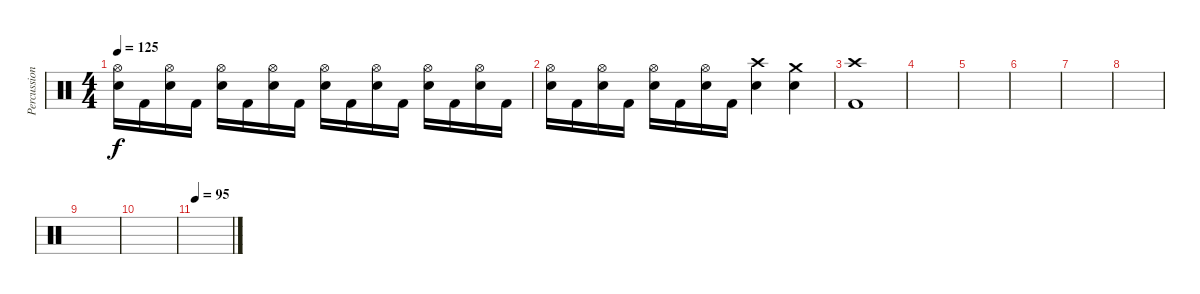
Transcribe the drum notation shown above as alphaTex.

\track ("Percussion" "Percussion") {instrument percussion}
\staff {score}
\articulation defaults
\ts (4 4)
\tempo 125
\clef neutral
\ks c
("Hi-Hat (open)" "Snare (hit) 2").16{dy f} "Kick (hit) 2".16 ("Hi-Hat (open)" "Snare (hit) 2").16 "Kick (hit) 2".16 ("Hi-Hat (open)" "Snare (hit) 2").16 "Kick (hit) 2".16 ("Hi-Hat (open)" "Snare (hit) 2").16 "Kick (hit) 2".16 ("Hi-Hat (open)" "Snare (hit) 2").16 "Kick (hit) 2".16 ("Hi-Hat (open)" "Snare (hit) 2").16 "Kick (hit) 2".16 ("Hi-Hat (open)" "Snare (hit) 2").16 "Kick (hit) 2".16 ("Hi-Hat (open)" "Snare (hit) 2").16 "Kick (hit) 2".16 |
("Hi-Hat (open)" "Snare (hit) 2").16 "Kick (hit) 2".16 ("Hi-Hat (open)" "Snare (hit) 2").16 "Kick (hit) 2".16 ("Hi-Hat (open)" "Snare (hit) 2").16 "Kick (hit) 2".16 ("Hi-Hat (open)" "Snare (hit) 2").16 "Kick (hit) 2".16 ("Crash high (hit)" "Snare (hit) 2").4 ("Crash medium (hit)" "Snare (hit) 2").4 |
("Crash high (hit)" "Kick (hit) 2").1 |
|
|
|
|
|
|
|
\tempo 95
